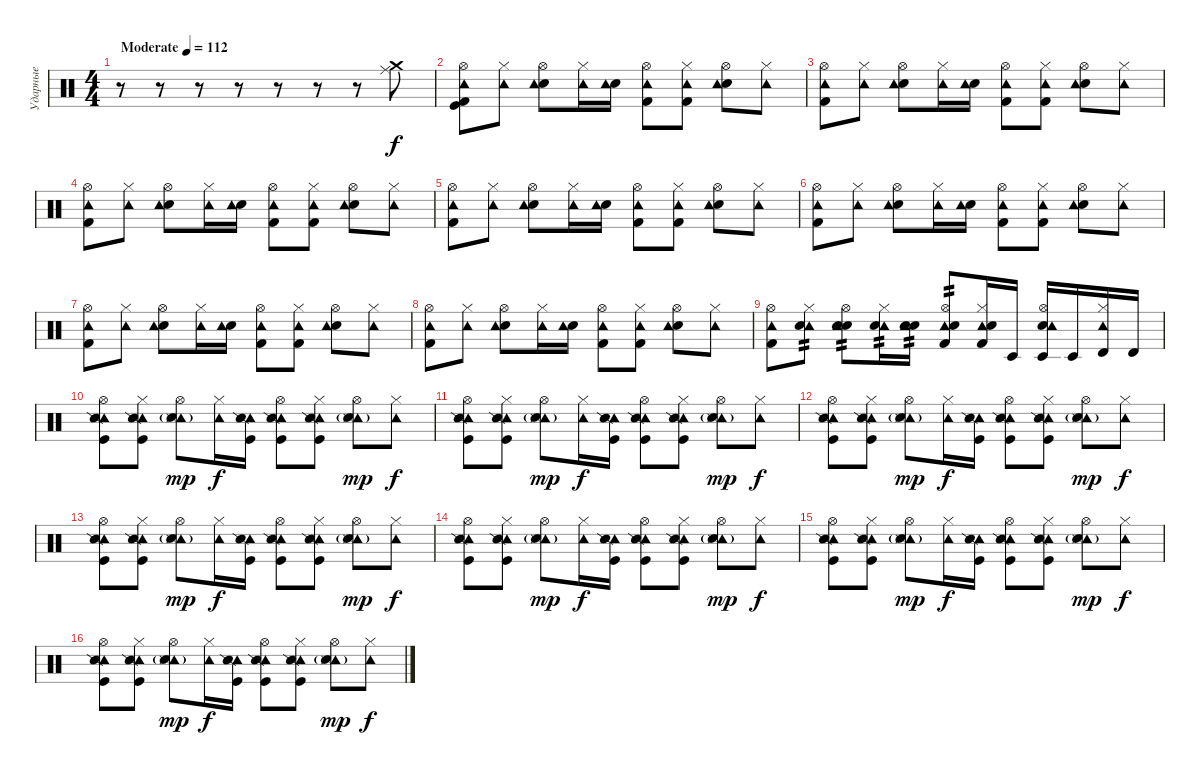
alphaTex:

\track ("Ударные" "Ударные") {instrument percussion}
\staff {score}
\articulation defaults
\ts (4 4)
\tempo (112 "Moderate")
\clef neutral
\ks c
r.8{dy f} r.8 r.8 r.8 r.8 r.8 r.8 ("Crash medium (hit)" "Ride (middle)").8 |
("Hi-Hat (open)" "Kick (hit) 2" "Tambourine (hit)" "Kick (hit)").8 ("Hi-Hat (closed)" "Tambourine (hit)").8 ("Hi-Hat (open)" "Electric Snare (hit)" "Tambourine (hit)").8 ("Hi-Hat (closed)" "Tambourine (hit)").16 ("Electric Snare (hit)" "Tambourine (hit)").16 ("Hi-Hat (open)" "Kick (hit) 2" "Tambourine (hit)").8 ("Hi-Hat (closed)" "Kick (hit) 2" "Tambourine (hit)").8 ("Hi-Hat (open)" "Electric Snare (hit)" "Tambourine (hit)").8 ("Hi-Hat (closed)" "Tambourine (hit)").8 |
("Hi-Hat (open)" "Kick (hit) 2" "Tambourine (hit)").8 ("Hi-Hat (closed)" "Tambourine (hit)").8 ("Hi-Hat (open)" "Electric Snare (hit)" "Tambourine (hit)").8 ("Hi-Hat (closed)" "Tambourine (hit)").16 ("Electric Snare (hit)" "Tambourine (hit)").16 ("Hi-Hat (open)" "Kick (hit) 2" "Tambourine (hit)").8 ("Hi-Hat (closed)" "Kick (hit) 2" "Tambourine (hit)").8 ("Hi-Hat (open)" "Electric Snare (hit)" "Tambourine (hit)").8 ("Hi-Hat (closed)" "Tambourine (hit)").8 |
("Hi-Hat (open)" "Kick (hit) 2" "Tambourine (hit)").8 ("Hi-Hat (closed)" "Tambourine (hit)").8 ("Hi-Hat (open)" "Electric Snare (hit)" "Tambourine (hit)").8 ("Hi-Hat (closed)" "Tambourine (hit)").16 ("Electric Snare (hit)" "Tambourine (hit)").16 ("Hi-Hat (open)" "Kick (hit) 2" "Tambourine (hit)").8 ("Hi-Hat (closed)" "Kick (hit) 2" "Tambourine (hit)").8 ("Hi-Hat (open)" "Electric Snare (hit)" "Tambourine (hit)").8 ("Hi-Hat (closed)" "Tambourine (hit)").8 |
("Hi-Hat (open)" "Kick (hit) 2" "Tambourine (hit)").8 ("Hi-Hat (closed)" "Tambourine (hit)").8 ("Hi-Hat (open)" "Electric Snare (hit)" "Tambourine (hit)").8 ("Hi-Hat (closed)" "Tambourine (hit)").16 ("Electric Snare (hit)" "Tambourine (hit)").16 ("Hi-Hat (open)" "Kick (hit) 2" "Tambourine (hit)").8 ("Hi-Hat (closed)" "Kick (hit) 2" "Tambourine (hit)").8 ("Hi-Hat (open)" "Electric Snare (hit)" "Tambourine (hit)").8 ("Hi-Hat (closed)" "Tambourine (hit)").8 |
("Hi-Hat (open)" "Kick (hit) 2" "Tambourine (hit)").8 ("Hi-Hat (closed)" "Tambourine (hit)").8 ("Hi-Hat (open)" "Electric Snare (hit)" "Tambourine (hit)").8 ("Hi-Hat (closed)" "Tambourine (hit)").16 ("Electric Snare (hit)" "Tambourine (hit)").16 ("Hi-Hat (open)" "Kick (hit) 2" "Tambourine (hit)").8 ("Hi-Hat (closed)" "Kick (hit) 2" "Tambourine (hit)").8 ("Hi-Hat (open)" "Electric Snare (hit)" "Tambourine (hit)").8 ("Hi-Hat (closed)" "Tambourine (hit)").8 |
("Hi-Hat (open)" "Kick (hit) 2" "Tambourine (hit)").8 ("Hi-Hat (closed)" "Tambourine (hit)").8 ("Hi-Hat (open)" "Electric Snare (hit)" "Tambourine (hit)").8 ("Hi-Hat (closed)" "Tambourine (hit)").16 ("Electric Snare (hit)" "Tambourine (hit)").16 ("Hi-Hat (open)" "Kick (hit) 2" "Tambourine (hit)").8 ("Hi-Hat (closed)" "Kick (hit) 2" "Tambourine (hit)").8 ("Hi-Hat (open)" "Electric Snare (hit)" "Tambourine (hit)").8 ("Hi-Hat (closed)" "Tambourine (hit)").8 |
("Hi-Hat (open)" "Kick (hit) 2" "Tambourine (hit)").8 ("Hi-Hat (closed)" "Tambourine (hit)").8 ("Hi-Hat (open)" "Electric Snare (hit)" "Tambourine (hit)").8 ("Hi-Hat (closed)" "Tambourine (hit)").16 ("Electric Snare (hit)" "Tambourine (hit)").16 ("Hi-Hat (open)" "Kick (hit) 2" "Tambourine (hit)").8 ("Hi-Hat (closed)" "Kick (hit) 2" "Tambourine (hit)").8 ("Hi-Hat (open)" "Electric Snare (hit)" "Tambourine (hit)").8 ("Hi-Hat (closed)" "Tambourine (hit)").8 |
("Hi-Hat (open)" "Kick (hit) 2" "Tambourine (hit)").8 ("Hi-Hat (closed)" "Tambourine (hit)" "Electric Snare (hit)").8{tp 2} ("Hi-Hat (open)" "Electric Snare (hit)" "Tambourine (hit)" "Electric Snare (hit)").8{tp 2} ("Hi-Hat (closed)" "Tambourine (hit)" "Electric Snare (hit)").16{tp 2} ("Electric Snare (hit)" "Tambourine (hit)" "Electric Snare (hit)").16{tp 2} ("Hi-Hat (open)" "Kick (hit) 2" "Tambourine (hit)" "Electric Snare (hit)").8{tp 2} ("Hi-Hat (closed)" "Kick (hit) 2" "Tambourine (hit)" "Electric Snare (hit)").16 "Timbale low (hit)".16 ("Hi-Hat (open)" "Electric Snare (hit)" "Tambourine (hit)" "Timbale low (hit)").16 "Timbale low (hit)".16 ("Hi-Hat (closed)" "Tambourine (hit)" "Timbale high (hit)").16 "Timbale high (hit)".16 |
("Hi-Hat (open)" "Tambourine (hit)" "Kick (hit)" "Snare (side stick) 2").8 ("Hi-Hat (closed)" "Tambourine (hit)" "Kick (hit)" "Snare (side stick) 2").8 ("Hi-Hat (open)" "Tambourine (hit)" "Electric Snare (hit)"{g} "Snare (side stick) 3").8{dy mp} ("Hi-Hat (closed)" "Tambourine (hit)").16{dy f} ("Tambourine (hit)" "Kick (hit)" "Snare (side stick) 2").16 ("Hi-Hat (open)" "Tambourine (hit)" "Kick (hit)" "Snare (side stick) 2").8 ("Hi-Hat (closed)" "Tambourine (hit)" "Kick (hit)" "Snare (side stick) 2").8 ("Hi-Hat (open)" "Tambourine (hit)" "Electric Snare (hit)"{g} "Snare (side stick) 3").8{dy mp} ("Hi-Hat (closed)" "Tambourine (hit)").8{dy f} |
("Hi-Hat (open)" "Tambourine (hit)" "Kick (hit)" "Snare (side stick) 2").8 ("Hi-Hat (closed)" "Tambourine (hit)" "Kick (hit)" "Snare (side stick) 2").8 ("Hi-Hat (open)" "Tambourine (hit)" "Electric Snare (hit)"{g} "Snare (side stick) 3").8{dy mp} ("Hi-Hat (closed)" "Tambourine (hit)").16{dy f} ("Tambourine (hit)" "Kick (hit)" "Snare (side stick) 2").16 ("Hi-Hat (open)" "Tambourine (hit)" "Kick (hit)" "Snare (side stick) 2").8 ("Hi-Hat (closed)" "Tambourine (hit)" "Kick (hit)" "Snare (side stick) 2").8 ("Hi-Hat (open)" "Tambourine (hit)" "Electric Snare (hit)"{g} "Snare (side stick) 3").8{dy mp} ("Hi-Hat (closed)" "Tambourine (hit)").8{dy f} |
("Hi-Hat (open)" "Tambourine (hit)" "Kick (hit)" "Snare (side stick) 2").8 ("Hi-Hat (closed)" "Tambourine (hit)" "Kick (hit)" "Snare (side stick) 2").8 ("Hi-Hat (open)" "Tambourine (hit)" "Electric Snare (hit)"{g} "Snare (side stick) 3").8{dy mp} ("Hi-Hat (closed)" "Tambourine (hit)").16{dy f} ("Tambourine (hit)" "Kick (hit)" "Snare (side stick) 2").16 ("Hi-Hat (open)" "Tambourine (hit)" "Kick (hit)" "Snare (side stick) 2").8 ("Hi-Hat (closed)" "Tambourine (hit)" "Kick (hit)" "Snare (side stick) 2").8 ("Hi-Hat (open)" "Tambourine (hit)" "Electric Snare (hit)"{g} "Snare (side stick) 3").8{dy mp} ("Hi-Hat (closed)" "Tambourine (hit)").8{dy f} |
("Hi-Hat (open)" "Tambourine (hit)" "Kick (hit)" "Snare (side stick) 2").8 ("Hi-Hat (closed)" "Tambourine (hit)" "Kick (hit)" "Snare (side stick) 2").8 ("Hi-Hat (open)" "Tambourine (hit)" "Electric Snare (hit)"{g} "Snare (side stick) 3").8{dy mp} ("Hi-Hat (closed)" "Tambourine (hit)").16{dy f} ("Tambourine (hit)" "Kick (hit)" "Snare (side stick) 2").16 ("Hi-Hat (open)" "Tambourine (hit)" "Kick (hit)" "Snare (side stick) 2").8 ("Hi-Hat (closed)" "Tambourine (hit)" "Kick (hit)" "Snare (side stick) 2").8 ("Hi-Hat (open)" "Tambourine (hit)" "Electric Snare (hit)"{g} "Snare (side stick) 3").8{dy mp} ("Hi-Hat (closed)" "Tambourine (hit)").8{dy f} |
("Hi-Hat (open)" "Tambourine (hit)" "Kick (hit)" "Snare (side stick) 2").8 ("Hi-Hat (closed)" "Tambourine (hit)" "Kick (hit)" "Snare (side stick) 2").8 ("Hi-Hat (open)" "Tambourine (hit)" "Electric Snare (hit)"{g} "Snare (side stick) 3").8{dy mp} ("Hi-Hat (closed)" "Tambourine (hit)").16{dy f} ("Tambourine (hit)" "Kick (hit)" "Snare (side stick) 2").16 ("Hi-Hat (open)" "Tambourine (hit)" "Kick (hit)" "Snare (side stick) 2").8 ("Hi-Hat (closed)" "Tambourine (hit)" "Kick (hit)" "Snare (side stick) 2").8 ("Hi-Hat (open)" "Tambourine (hit)" "Electric Snare (hit)"{g} "Snare (side stick) 3").8{dy mp} ("Hi-Hat (closed)" "Tambourine (hit)").8{dy f} |
("Hi-Hat (open)" "Tambourine (hit)" "Kick (hit)" "Snare (side stick) 2").8 ("Hi-Hat (closed)" "Tambourine (hit)" "Kick (hit)" "Snare (side stick) 2").8 ("Hi-Hat (open)" "Tambourine (hit)" "Electric Snare (hit)"{g} "Snare (side stick) 3").8{dy mp} ("Hi-Hat (closed)" "Tambourine (hit)").16{dy f} ("Tambourine (hit)" "Kick (hit)" "Snare (side stick) 2").16 ("Hi-Hat (open)" "Tambourine (hit)" "Kick (hit)" "Snare (side stick) 2").8 ("Hi-Hat (closed)" "Tambourine (hit)" "Kick (hit)" "Snare (side stick) 2").8 ("Hi-Hat (open)" "Tambourine (hit)" "Electric Snare (hit)"{g} "Snare (side stick) 3").8{dy mp} ("Hi-Hat (closed)" "Tambourine (hit)").8{dy f} |
("Hi-Hat (open)" "Tambourine (hit)" "Kick (hit)" "Snare (side stick) 2").8 ("Hi-Hat (closed)" "Tambourine (hit)" "Kick (hit)" "Snare (side stick) 2").8 ("Hi-Hat (open)" "Tambourine (hit)" "Electric Snare (hit)"{g} "Snare (side stick) 3").8{dy mp} ("Hi-Hat (closed)" "Tambourine (hit)").16{dy f} ("Tambourine (hit)" "Kick (hit)" "Snare (side stick) 2").16 ("Hi-Hat (open)" "Tambourine (hit)" "Kick (hit)" "Snare (side stick) 2").8 ("Hi-Hat (closed)" "Tambourine (hit)" "Kick (hit)" "Snare (side stick) 2").8 ("Hi-Hat (open)" "Tambourine (hit)" "Electric Snare (hit)"{g} "Snare (side stick) 3").8{dy mp} ("Hi-Hat (closed)" "Tambourine (hit)").8{dy f}
